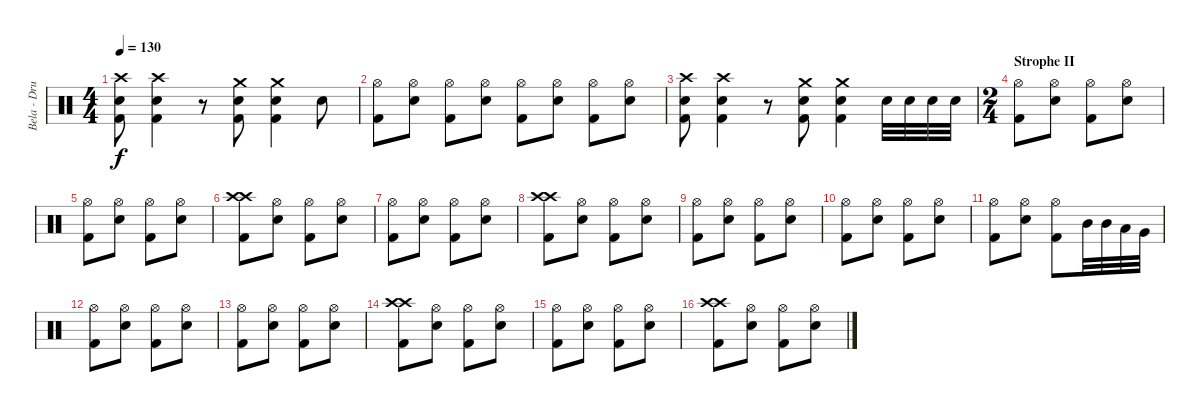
\track ("Bela - Drums" "Bela - Dru") {instrument percussion}
\staff {score}
\articulation defaults
\ts (4 4)
\tempo 130
\clef neutral
\ks c
("Crash high (hit)" "Snare (hit) 2" "Kick (hit) 2").8{dy f} ("Crash high (hit)" "Snare (hit) 2" "Kick (hit) 2").4 r.8 ("Crash medium (hit)" "Snare (hit) 2" "Kick (hit) 2").8 ("Crash medium (hit)" "Snare (hit) 2" "Kick (hit) 2").4 "Snare (hit) 2".8 |
("Hi-Hat (open)" "Kick (hit) 2").8 ("Hi-Hat (open)" "Snare (hit) 2").8 ("Hi-Hat (open)" "Kick (hit) 2").8 ("Hi-Hat (open)" "Snare (hit) 2").8 ("Hi-Hat (open)" "Kick (hit) 2").8 ("Hi-Hat (open)" "Snare (hit) 2").8 ("Hi-Hat (open)" "Kick (hit) 2").8 ("Hi-Hat (open)" "Snare (hit) 2").8 |
("Crash high (hit)" "Snare (hit) 2" "Kick (hit) 2").8 ("Crash high (hit)" "Snare (hit) 2" "Kick (hit) 2").4 r.8 ("Crash medium (hit)" "Snare (hit) 2" "Kick (hit) 2").8 ("Crash medium (hit)" "Snare (hit) 2" "Kick (hit) 2").4 "Snare (hit) 2".32 "Snare (hit) 2".32 "Snare (hit) 2".32 "Snare (hit) 2".32 |
\ts (2 4)
\section ("" "Strophe II")
("Hi-Hat (open)" "Kick (hit) 2").8 ("Hi-Hat (open)" "Snare (hit) 2").8 ("Hi-Hat (open)" "Kick (hit) 2").8 ("Hi-Hat (open)" "Snare (hit) 2").8 |
("Hi-Hat (open)" "Kick (hit) 2").8 ("Hi-Hat (open)" "Snare (hit) 2").8 ("Hi-Hat (open)" "Kick (hit) 2").8 ("Hi-Hat (open)" "Snare (hit) 2").8 |
("Crash high (hit)" "Crash high (hit)" "Kick (hit) 2").8 ("Hi-Hat (open)" "Snare (hit) 2").8 ("Hi-Hat (open)" "Kick (hit) 2").8 ("Hi-Hat (open)" "Snare (hit) 2").8 |
("Hi-Hat (open)" "Kick (hit) 2").8 ("Hi-Hat (open)" "Snare (hit) 2").8 ("Hi-Hat (open)" "Kick (hit) 2").8 ("Hi-Hat (open)" "Snare (hit) 2").8 |
("Crash high (hit)" "Crash high (hit)" "Kick (hit) 2").8 ("Hi-Hat (open)" "Snare (hit) 2").8 ("Hi-Hat (open)" "Kick (hit) 2").8 ("Hi-Hat (open)" "Snare (hit) 2").8 |
("Hi-Hat (open)" "Kick (hit) 2").8 ("Hi-Hat (open)" "Snare (hit) 2").8 ("Hi-Hat (open)" "Kick (hit) 2").8 ("Hi-Hat (open)" "Snare (hit) 2").8 |
("Hi-Hat (open)" "Kick (hit) 2").8 ("Hi-Hat (open)" "Snare (hit) 2").8 ("Hi-Hat (open)" "Kick (hit) 2").8 ("Hi-Hat (open)" "Snare (hit) 2").8 |
("Hi-Hat (open)" "Kick (hit) 2").8 ("Hi-Hat (open)" "Snare (hit) 2").8 ("Hi-Hat (open)" "Kick (hit) 2").8 "Mid Tom (hit)".32 "Mid Tom (hit)".32 "Low Floor Tom (hit)".32 "Very Low Tom (hit)".32 |
("Hi-Hat (open)" "Kick (hit) 2").8 ("Hi-Hat (open)" "Snare (hit) 2").8 ("Hi-Hat (open)" "Kick (hit) 2").8 ("Hi-Hat (open)" "Snare (hit) 2").8 |
("Hi-Hat (open)" "Kick (hit) 2").8 ("Hi-Hat (open)" "Snare (hit) 2").8 ("Hi-Hat (open)" "Kick (hit) 2").8 ("Hi-Hat (open)" "Snare (hit) 2").8 |
("Crash high (hit)" "Crash high (hit)" "Kick (hit) 2").8 ("Hi-Hat (open)" "Snare (hit) 2").8 ("Hi-Hat (open)" "Kick (hit) 2").8 ("Hi-Hat (open)" "Snare (hit) 2").8 |
("Hi-Hat (open)" "Kick (hit) 2").8 ("Hi-Hat (open)" "Snare (hit) 2").8 ("Hi-Hat (open)" "Kick (hit) 2").8 ("Hi-Hat (open)" "Snare (hit) 2").8 |
("Crash high (hit)" "Crash high (hit)" "Kick (hit) 2").8 ("Hi-Hat (open)" "Snare (hit) 2").8 ("Hi-Hat (open)" "Kick (hit) 2").8 ("Hi-Hat (open)" "Snare (hit) 2").8
